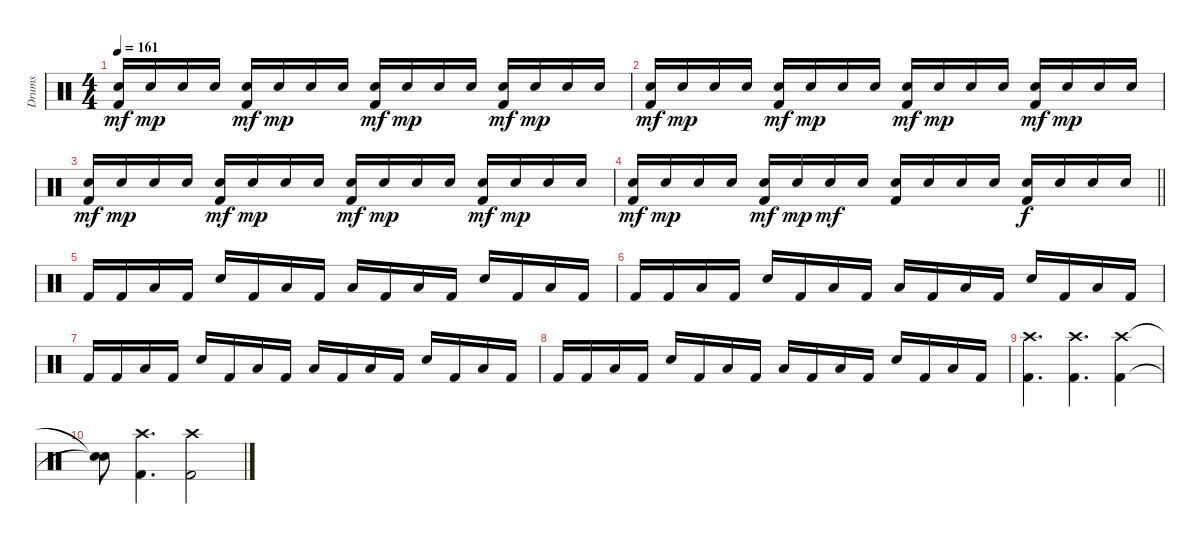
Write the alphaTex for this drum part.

\track ("Drums" "Drums") {instrument percussion}
\staff {score}
\articulation defaults
\ts (4 4)
\tempo 161
\clef neutral
\ks c
("Kick (hit) 2" "Electric Snare (hit)").16{dy mf} "Electric Snare (hit)".16{dy mp} "Electric Snare (hit)".16 "Electric Snare (hit)".16 ("Kick (hit) 2" "Electric Snare (hit)").16{dy mf} "Electric Snare (hit)".16{dy mp} "Electric Snare (hit)".16 "Electric Snare (hit)".16 ("Kick (hit) 2" "Electric Snare (hit)").16{dy mf} "Electric Snare (hit)".16{dy mp} "Electric Snare (hit)".16 "Electric Snare (hit)".16 ("Kick (hit) 2" "Electric Snare (hit)").16{dy mf} "Electric Snare (hit)".16{dy mp} "Electric Snare (hit)".16 "Electric Snare (hit)".16 |
("Kick (hit) 2" "Electric Snare (hit)").16{dy mf} "Electric Snare (hit)".16{dy mp} "Electric Snare (hit)".16 "Electric Snare (hit)".16 ("Kick (hit) 2" "Electric Snare (hit)").16{dy mf} "Electric Snare (hit)".16{dy mp} "Electric Snare (hit)".16 "Electric Snare (hit)".16 ("Kick (hit) 2" "Electric Snare (hit)").16{dy mf} "Electric Snare (hit)".16{dy mp} "Electric Snare (hit)".16 "Electric Snare (hit)".16 ("Kick (hit) 2" "Electric Snare (hit)").16{dy mf} "Electric Snare (hit)".16{dy mp} "Electric Snare (hit)".16 "Electric Snare (hit)".16 |
("Kick (hit) 2" "Electric Snare (hit)").16{dy mf} "Electric Snare (hit)".16{dy mp} "Electric Snare (hit)".16 "Electric Snare (hit)".16 ("Kick (hit) 2" "Electric Snare (hit)").16{dy mf} "Electric Snare (hit)".16{dy mp} "Electric Snare (hit)".16 "Electric Snare (hit)".16 ("Kick (hit) 2" "Electric Snare (hit)").16{dy mf} "Electric Snare (hit)".16{dy mp} "Electric Snare (hit)".16 "Electric Snare (hit)".16 ("Kick (hit) 2" "Electric Snare (hit)").16{dy mf} "Electric Snare (hit)".16{dy mp} "Electric Snare (hit)".16 "Electric Snare (hit)".16 |
\barLineRight lightlight
("Kick (hit) 2" "Electric Snare (hit)").16{dy mf} "Electric Snare (hit)".16{dy mp} "Electric Snare (hit)".16 "Electric Snare (hit)".16 ("Kick (hit) 2" "Electric Snare (hit)").16{dy mf} "Electric Snare (hit)".16{dy mp} "Electric Snare (hit)".16{dy mf} "Electric Snare (hit)".16 ("Kick (hit) 2" "Electric Snare (hit)").16 "Electric Snare (hit)".16 "Electric Snare (hit)".16 "Electric Snare (hit)".16 ("Kick (hit) 2" "Electric Snare (hit)").16{dy f} "Electric Snare (hit)".16 "Electric Snare (hit)".16 "Electric Snare (hit)".16 |
"Kick (hit) 2".16 "Kick (hit) 2".16 "Low Tom (hit)".16 "Kick (hit) 2".16 "Electric Snare (hit)".16 "Kick (hit) 2".16 "Low Tom (hit)".16 "Kick (hit) 2".16 "Low Tom (hit)".16 "Kick (hit) 2".16 "Low Tom (hit)".16 "Kick (hit) 2".16 "Electric Snare (hit)".16 "Kick (hit) 2".16 "Low Tom (hit)".16 "Kick (hit) 2".16 |
"Kick (hit) 2".16 "Kick (hit) 2".16 "Low Tom (hit)".16 "Kick (hit) 2".16 "Electric Snare (hit)".16 "Kick (hit) 2".16 "Low Tom (hit)".16 "Kick (hit) 2".16 "Low Tom (hit)".16 "Kick (hit) 2".16 "Low Tom (hit)".16 "Kick (hit) 2".16 "Electric Snare (hit)".16 "Kick (hit) 2".16 "Low Tom (hit)".16 "Kick (hit) 2".16 |
"Kick (hit) 2".16 "Kick (hit) 2".16 "Low Tom (hit)".16 "Kick (hit) 2".16 "Electric Snare (hit)".16 "Kick (hit) 2".16 "Low Tom (hit)".16 "Kick (hit) 2".16 "Low Tom (hit)".16 "Kick (hit) 2".16 "Low Tom (hit)".16 "Kick (hit) 2".16 "Electric Snare (hit)".16 "Kick (hit) 2".16 "Low Tom (hit)".16 "Kick (hit) 2".16 |
"Kick (hit) 2".16 "Kick (hit) 2".16 "Low Tom (hit)".16 "Kick (hit) 2".16 "Electric Snare (hit)".16 "Kick (hit) 2".16 "Low Tom (hit)".16 "Kick (hit) 2".16 "Low Tom (hit)".16 "Kick (hit) 2".16 "Low Tom (hit)".16 "Kick (hit) 2".16 "Electric Snare (hit)".16 "Kick (hit) 2".16 "Low Tom (hit)".16 "Kick (hit) 2".16 |
("Kick (hit) 2" "Crash high (hit)").4{d} ("Kick (hit) 2" "Crash high (hit)").4{d} ("Kick (hit) 2" "Crash high (hit)").4 |
("Snare (hit)"{t} "Snare (hit)"{t}).8 ("Kick (hit) 2" "Crash high (hit)").4{d} ("Kick (hit) 2" "Crash high (hit)").2
